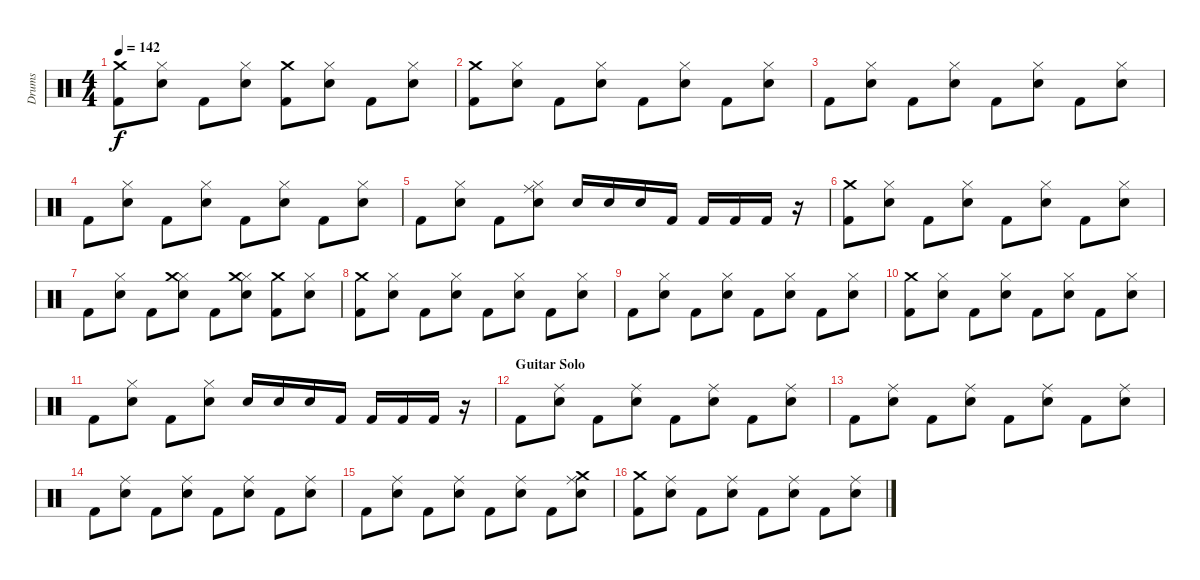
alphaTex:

\track ("Drums" "Drums") {instrument percussion}
\staff {score}
\articulation defaults
\ts (4 4)
\tempo 142
\clef neutral
\ks c
("Kick (hit) 2" "Crash medium (hit)").8{dy f} ("Snare (hit) 2" "Hi-Hat (closed)").8 "Kick (hit) 2".8 ("Snare (hit) 2" "Hi-Hat (closed)").8 ("Kick (hit) 2" "Crash medium (hit)").8 ("Snare (hit) 2" "Hi-Hat (closed)").8 "Kick (hit) 2".8 ("Snare (hit) 2" "Hi-Hat (closed)").8 |
("Kick (hit) 2" "Crash medium (hit)").8 ("Snare (hit) 2" "Hi-Hat (closed)").8 "Kick (hit) 2".8 ("Snare (hit) 2" "Hi-Hat (closed)").8 "Kick (hit) 2".8 ("Snare (hit) 2" "Hi-Hat (closed)").8 "Kick (hit) 2".8 ("Snare (hit) 2" "Hi-Hat (closed)").8 |
"Kick (hit) 2".8 ("Snare (hit) 2" "Hi-Hat (closed)").8 "Kick (hit) 2".8 ("Snare (hit) 2" "Hi-Hat (closed)").8 "Kick (hit) 2".8 ("Snare (hit) 2" "Hi-Hat (closed)").8 "Kick (hit) 2".8 ("Snare (hit) 2" "Hi-Hat (closed)").8 |
"Kick (hit) 2".8 ("Snare (hit) 2" "Hi-Hat (closed)").8 "Kick (hit) 2".8 ("Snare (hit) 2" "Hi-Hat (closed)").8 "Kick (hit) 2".8 ("Snare (hit) 2" "Hi-Hat (closed)").8 "Kick (hit) 2".8 ("Snare (hit) 2" "Hi-Hat (closed)").8 |
"Kick (hit) 2".8 ("Snare (hit) 2" "Hi-Hat (closed)").8 "Kick (hit) 2".8 ("Snare (hit) 2" "Hi-Hat (closed)" "Ride (middle)").8 "Snare (hit) 2".16 "Snare (hit) 2".16 "Snare (hit) 2".16 "Kick (hit) 2".16 "Kick (hit) 2".16 "Kick (hit) 2".16 "Kick (hit) 2".16 r.16 |
("Kick (hit) 2" "Crash medium (hit)").8 ("Snare (hit) 2" "Hi-Hat (closed)").8 "Kick (hit) 2".8 ("Snare (hit) 2" "Hi-Hat (closed)").8 "Kick (hit) 2".8 ("Snare (hit) 2" "Hi-Hat (closed)").8 "Kick (hit) 2".8 ("Snare (hit) 2" "Hi-Hat (closed)").8 |
"Kick (hit) 2".8 ("Snare (hit) 2" "Hi-Hat (closed)").8 "Kick (hit) 2".8 ("Snare (hit) 2" "Hi-Hat (closed)" "Crash medium (hit)").8 "Kick (hit) 2".8 ("Snare (hit) 2" "Hi-Hat (closed)" "Crash medium (hit)").8 ("Kick (hit) 2" "Crash medium (hit)").8 ("Snare (hit) 2" "Hi-Hat (closed)").8 |
("Kick (hit) 2" "Crash medium (hit)").8 ("Snare (hit) 2" "Hi-Hat (closed)").8 "Kick (hit) 2".8 ("Snare (hit) 2" "Hi-Hat (closed)").8 "Kick (hit) 2".8 ("Snare (hit) 2" "Hi-Hat (closed)").8 "Kick (hit) 2".8 ("Snare (hit) 2" "Hi-Hat (closed)").8 |
"Kick (hit) 2".8 ("Snare (hit) 2" "Hi-Hat (closed)").8 "Kick (hit) 2".8 ("Snare (hit) 2" "Hi-Hat (closed)").8 "Kick (hit) 2".8 ("Snare (hit) 2" "Hi-Hat (closed)").8 "Kick (hit) 2".8 ("Snare (hit) 2" "Hi-Hat (closed)").8 |
("Kick (hit) 2" "Crash medium (hit)").8 ("Snare (hit) 2" "Hi-Hat (closed)").8 "Kick (hit) 2".8 ("Snare (hit) 2" "Hi-Hat (closed)").8 "Kick (hit) 2".8 ("Snare (hit) 2" "Hi-Hat (closed)").8 "Kick (hit) 2".8 ("Snare (hit) 2" "Hi-Hat (closed)").8 |
"Kick (hit) 2".8 ("Snare (hit) 2" "Hi-Hat (closed)").8 "Kick (hit) 2".8 ("Snare (hit) 2" "Hi-Hat (closed)").8 "Snare (hit) 2".16 "Snare (hit) 2".16 "Snare (hit) 2".16 "Kick (hit) 2".16 "Kick (hit) 2".16 "Kick (hit) 2".16 "Kick (hit) 2".16 r.16 |
\section ("" "Guitar Solo")
"Kick (hit) 2".8 ("Snare (hit) 2" "Ride (middle)").8 "Kick (hit) 2".8 ("Snare (hit) 2" "Ride (middle)").8 "Kick (hit) 2".8 ("Snare (hit) 2" "Ride (middle)").8 "Kick (hit) 2".8 ("Snare (hit) 2" "Ride (middle)").8 |
"Kick (hit) 2".8 ("Snare (hit) 2" "Ride (middle)").8 "Kick (hit) 2".8 ("Snare (hit) 2" "Ride (middle)").8 "Kick (hit) 2".8 ("Snare (hit) 2" "Ride (middle)").8 "Kick (hit) 2".8 ("Snare (hit) 2" "Ride (middle)").8 |
"Kick (hit) 2".8 ("Snare (hit) 2" "Ride (middle)").8 "Kick (hit) 2".8 ("Snare (hit) 2" "Ride (middle)").8 "Kick (hit) 2".8 ("Snare (hit) 2" "Ride (middle)").8 "Kick (hit) 2".8 ("Snare (hit) 2" "Ride (middle)").8 |
"Kick (hit) 2".8 ("Snare (hit) 2" "Ride (middle)").8 "Kick (hit) 2".8 ("Snare (hit) 2" "Ride (middle)").8 "Kick (hit) 2".8 ("Snare (hit) 2" "Ride (middle)").8 "Kick (hit) 2".8 ("Snare (hit) 2" "Ride (middle)" "Crash medium (hit)").8 |
("Kick (hit) 2" "Crash medium (hit)").8 ("Snare (hit) 2" "Ride (middle)").8 "Kick (hit) 2".8 ("Snare (hit) 2" "Ride (middle)").8 "Kick (hit) 2".8 ("Snare (hit) 2" "Ride (middle)").8 "Kick (hit) 2".8 ("Snare (hit) 2" "Ride (middle)").8
